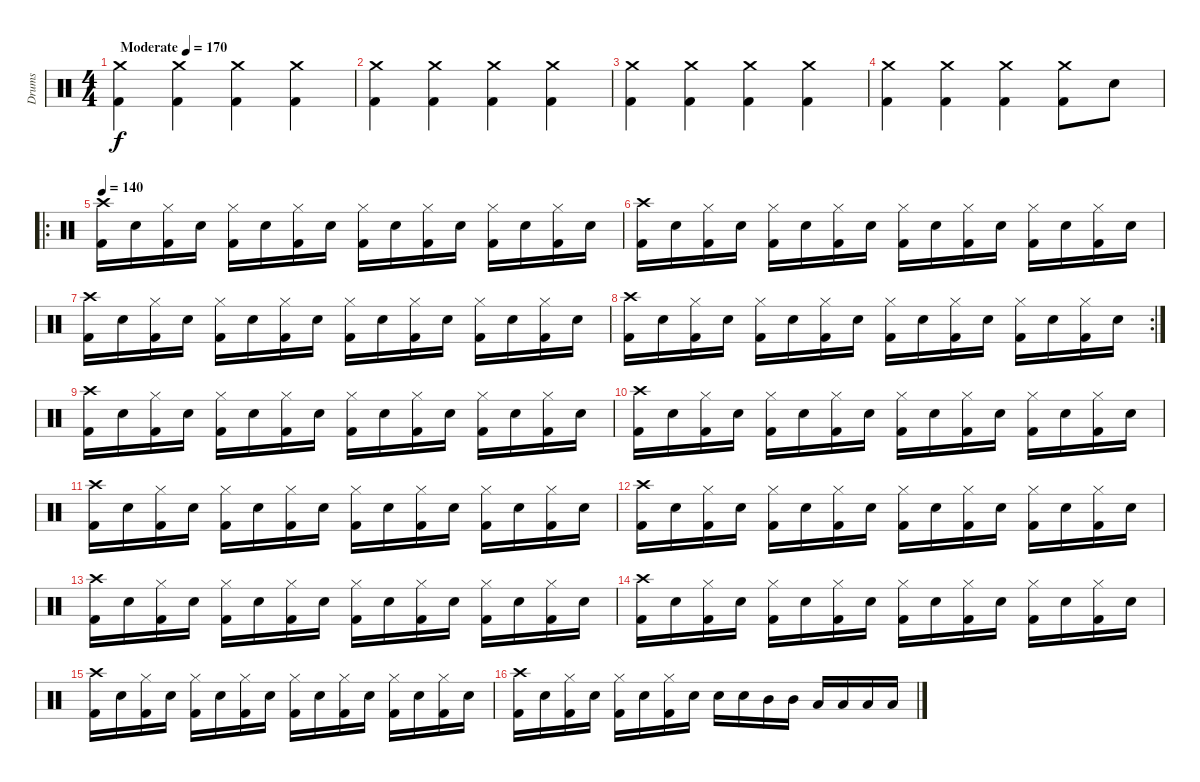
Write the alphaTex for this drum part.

\track ("Drums" "Drums") {instrument percussion}
\staff {score}
\articulation defaults
\ts (4 4)
\tempo (170 "Moderate")
\clef neutral
\ks c
("Crash medium (hit)" "Kick (hit) 2").4{dy f} ("Crash medium (hit)" "Kick (hit) 2").4 ("Crash medium (hit)" "Kick (hit) 2").4 ("Crash medium (hit)" "Kick (hit) 2").4 |
("Crash medium (hit)" "Kick (hit) 2").4 ("Crash medium (hit)" "Kick (hit) 2").4 ("Crash medium (hit)" "Kick (hit) 2").4 ("Crash medium (hit)" "Kick (hit) 2").4 |
("Crash medium (hit)" "Kick (hit) 2").4 ("Crash medium (hit)" "Kick (hit) 2").4 ("Crash medium (hit)" "Kick (hit) 2").4 ("Crash medium (hit)" "Kick (hit) 2").4 |
("Crash medium (hit)" "Kick (hit) 2").4 ("Crash medium (hit)" "Kick (hit) 2").4 ("Crash medium (hit)" "Kick (hit) 2").4 ("Crash medium (hit)" "Kick (hit) 2").8 "Snare (hit) 2".8 |
\ro
\tempo 140
("Crash high (hit)" "Kick (hit) 2").16 "Snare (hit) 2".16 ("Hi-Hat (closed)" "Kick (hit) 2").16 "Snare (hit) 2".16 ("Hi-Hat (closed)" "Kick (hit) 2").16 "Snare (hit) 2".16 ("Hi-Hat (closed)" "Kick (hit) 2").16 "Snare (hit) 2".16 ("Hi-Hat (closed)" "Kick (hit) 2").16 "Snare (hit) 2".16 ("Hi-Hat (closed)" "Kick (hit) 2").16 "Snare (hit) 2".16 ("Hi-Hat (closed)" "Kick (hit) 2").16 "Snare (hit) 2".16 ("Hi-Hat (closed)" "Kick (hit) 2").16 "Snare (hit) 2".16 |
("Crash high (hit)" "Kick (hit) 2").16 "Snare (hit) 2".16 ("Hi-Hat (closed)" "Kick (hit) 2").16 "Snare (hit) 2".16 ("Hi-Hat (closed)" "Kick (hit) 2").16 "Snare (hit) 2".16 ("Hi-Hat (closed)" "Kick (hit) 2").16 "Snare (hit) 2".16 ("Hi-Hat (closed)" "Kick (hit) 2").16 "Snare (hit) 2".16 ("Hi-Hat (closed)" "Kick (hit) 2").16 "Snare (hit) 2".16 ("Hi-Hat (closed)" "Kick (hit) 2").16 "Snare (hit) 2".16 ("Hi-Hat (closed)" "Kick (hit) 2").16 "Snare (hit) 2".16 |
("Crash high (hit)" "Kick (hit) 2").16 "Snare (hit) 2".16 ("Hi-Hat (closed)" "Kick (hit) 2").16 "Snare (hit) 2".16 ("Hi-Hat (closed)" "Kick (hit) 2").16 "Snare (hit) 2".16 ("Hi-Hat (closed)" "Kick (hit) 2").16 "Snare (hit) 2".16 ("Hi-Hat (closed)" "Kick (hit) 2").16 "Snare (hit) 2".16 ("Hi-Hat (closed)" "Kick (hit) 2").16 "Snare (hit) 2".16 ("Hi-Hat (closed)" "Kick (hit) 2").16 "Snare (hit) 2".16 ("Hi-Hat (closed)" "Kick (hit) 2").16 "Snare (hit) 2".16 |
\rc 2
("Crash high (hit)" "Kick (hit) 2").16 "Snare (hit) 2".16 ("Hi-Hat (closed)" "Kick (hit) 2").16 "Snare (hit) 2".16 ("Hi-Hat (closed)" "Kick (hit) 2").16 "Snare (hit) 2".16 ("Hi-Hat (closed)" "Kick (hit) 2").16 "Snare (hit) 2".16 ("Hi-Hat (closed)" "Kick (hit) 2").16 "Snare (hit) 2".16 ("Hi-Hat (closed)" "Kick (hit) 2").16 "Snare (hit) 2".16 ("Hi-Hat (closed)" "Kick (hit) 2").16 "Snare (hit) 2".16 ("Hi-Hat (closed)" "Kick (hit) 2").16 "Snare (hit) 2".16 |
("Crash high (hit)" "Kick (hit) 2").16 "Snare (hit) 2".16 ("Hi-Hat (closed)" "Kick (hit) 2").16 "Snare (hit) 2".16 ("Hi-Hat (closed)" "Kick (hit) 2").16 "Snare (hit) 2".16 ("Hi-Hat (closed)" "Kick (hit) 2").16 "Snare (hit) 2".16 ("Hi-Hat (closed)" "Kick (hit) 2").16 "Snare (hit) 2".16 ("Hi-Hat (closed)" "Kick (hit) 2").16 "Snare (hit) 2".16 ("Hi-Hat (closed)" "Kick (hit) 2").16 "Snare (hit) 2".16 ("Hi-Hat (closed)" "Kick (hit) 2").16 "Snare (hit) 2".16 |
("Crash high (hit)" "Kick (hit) 2").16 "Snare (hit) 2".16 ("Hi-Hat (closed)" "Kick (hit) 2").16 "Snare (hit) 2".16 ("Hi-Hat (closed)" "Kick (hit) 2").16 "Snare (hit) 2".16 ("Hi-Hat (closed)" "Kick (hit) 2").16 "Snare (hit) 2".16 ("Hi-Hat (closed)" "Kick (hit) 2").16 "Snare (hit) 2".16 ("Hi-Hat (closed)" "Kick (hit) 2").16 "Snare (hit) 2".16 ("Hi-Hat (closed)" "Kick (hit) 2").16 "Snare (hit) 2".16 ("Hi-Hat (closed)" "Kick (hit) 2").16 "Snare (hit) 2".16 |
("Crash high (hit)" "Kick (hit) 2").16 "Snare (hit) 2".16 ("Hi-Hat (closed)" "Kick (hit) 2").16 "Snare (hit) 2".16 ("Hi-Hat (closed)" "Kick (hit) 2").16 "Snare (hit) 2".16 ("Hi-Hat (closed)" "Kick (hit) 2").16 "Snare (hit) 2".16 ("Hi-Hat (closed)" "Kick (hit) 2").16 "Snare (hit) 2".16 ("Hi-Hat (closed)" "Kick (hit) 2").16 "Snare (hit) 2".16 ("Hi-Hat (closed)" "Kick (hit) 2").16 "Snare (hit) 2".16 ("Hi-Hat (closed)" "Kick (hit) 2").16 "Snare (hit) 2".16 |
("Crash high (hit)" "Kick (hit) 2").16 "Snare (hit) 2".16 ("Hi-Hat (closed)" "Kick (hit) 2").16 "Snare (hit) 2".16 ("Hi-Hat (closed)" "Kick (hit) 2").16 "Snare (hit) 2".16 ("Hi-Hat (closed)" "Kick (hit) 2").16 "Snare (hit) 2".16 ("Hi-Hat (closed)" "Kick (hit) 2").16 "Snare (hit) 2".16 ("Hi-Hat (closed)" "Kick (hit) 2").16 "Snare (hit) 2".16 ("Hi-Hat (closed)" "Kick (hit) 2").16 "Snare (hit) 2".16 ("Hi-Hat (closed)" "Kick (hit) 2").16 "Snare (hit) 2".16 |
("Crash high (hit)" "Kick (hit) 2").16 "Snare (hit) 2".16 ("Hi-Hat (closed)" "Kick (hit) 2").16 "Snare (hit) 2".16 ("Hi-Hat (closed)" "Kick (hit) 2").16 "Snare (hit) 2".16 ("Hi-Hat (closed)" "Kick (hit) 2").16 "Snare (hit) 2".16 ("Hi-Hat (closed)" "Kick (hit) 2").16 "Snare (hit) 2".16 ("Hi-Hat (closed)" "Kick (hit) 2").16 "Snare (hit) 2".16 ("Hi-Hat (closed)" "Kick (hit) 2").16 "Snare (hit) 2".16 ("Hi-Hat (closed)" "Kick (hit) 2").16 "Snare (hit) 2".16 |
("Crash high (hit)" "Kick (hit) 2").16 "Snare (hit) 2".16 ("Hi-Hat (closed)" "Kick (hit) 2").16 "Snare (hit) 2".16 ("Hi-Hat (closed)" "Kick (hit) 2").16 "Snare (hit) 2".16 ("Hi-Hat (closed)" "Kick (hit) 2").16 "Snare (hit) 2".16 ("Hi-Hat (closed)" "Kick (hit) 2").16 "Snare (hit) 2".16 ("Hi-Hat (closed)" "Kick (hit) 2").16 "Snare (hit) 2".16 ("Hi-Hat (closed)" "Kick (hit) 2").16 "Snare (hit) 2".16 ("Hi-Hat (closed)" "Kick (hit) 2").16 "Snare (hit) 2".16 |
("Crash high (hit)" "Kick (hit) 2").16 "Snare (hit) 2".16 ("Hi-Hat (closed)" "Kick (hit) 2").16 "Snare (hit) 2".16 ("Hi-Hat (closed)" "Kick (hit) 2").16 "Snare (hit) 2".16 ("Hi-Hat (closed)" "Kick (hit) 2").16 "Snare (hit) 2".16 ("Hi-Hat (closed)" "Kick (hit) 2").16 "Snare (hit) 2".16 ("Hi-Hat (closed)" "Kick (hit) 2").16 "Snare (hit) 2".16 ("Hi-Hat (closed)" "Kick (hit) 2").16 "Snare (hit) 2".16 ("Hi-Hat (closed)" "Kick (hit) 2").16 "Snare (hit) 2".16 |
("Crash high (hit)" "Kick (hit) 2").16 "Snare (hit) 2".16 ("Hi-Hat (closed)" "Kick (hit) 2").16 "Snare (hit) 2".16 ("Hi-Hat (closed)" "Kick (hit) 2").16 "Snare (hit) 2".16 ("Hi-Hat (closed)" "Kick (hit) 2").16 "Snare (hit) 2".16 "Snare (hit) 2".16 "Snare (hit) 2".16 "Mid Tom (hit)".16 "Mid Tom (hit)".16 "Low Tom (hit)".16 "Low Tom (hit)".16 "Low Floor Tom (hit)".16 "Low Floor Tom (hit)".16
